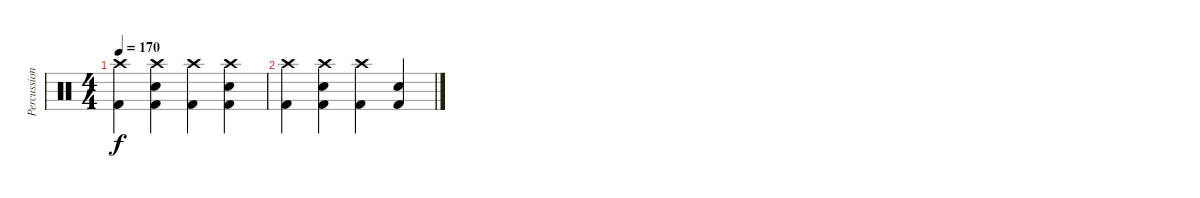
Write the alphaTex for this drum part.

\track ("Percussion" "Percussion") {instrument percussion}
\staff {score}
\articulation defaults
\ts (4 4)
\tempo 170
\clef neutral
\ks c
("Crash high (hit)" "Kick (hit) 2").4{dy f} ("Crash high (hit)" "Snare (hit) 2" "Kick (hit) 2").4 ("Crash high (hit)" "Kick (hit) 2").4 ("Crash high (hit)" "Snare (hit) 2" "Kick (hit) 2").4 |
("Crash high (hit)" "Kick (hit) 2").4 ("Crash high (hit)" "Snare (hit) 2" "Kick (hit) 2").4 ("Crash high (hit)" "Kick (hit) 2").4 ("Snare (hit) 2" "Kick (hit) 2").4
